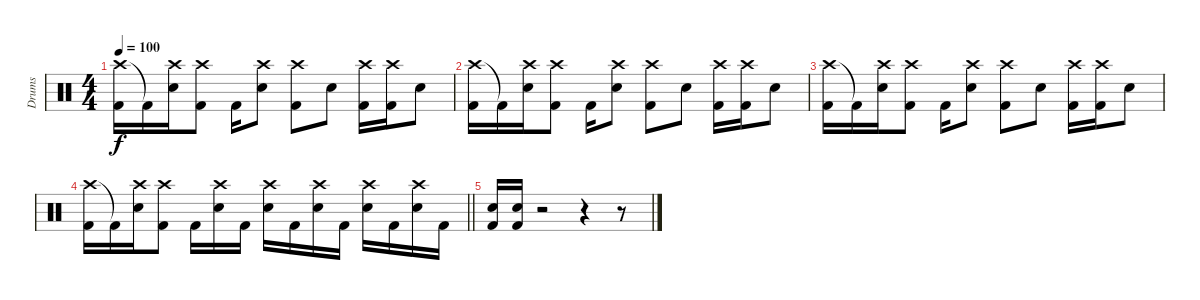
\track ("Drums" "Drums") {instrument percussion}
\staff {score}
\articulation defaults
\ts (4 4)
\tempo 100
\clef neutral
\ks c
("Crash high (hit)" "Kick (hit) 2").16{dy f} "Kick (hit) 2"{t}.16 ("Crash high (hit)" "Snare (hit) 2").16 ("Crash high (hit)" "Kick (hit) 2").8 "Kick (hit) 2".16 ("Crash high (hit)" "Snare (hit) 2").8 ("Crash high (hit)" "Kick (hit) 2").8 "Snare (hit) 2".8 ("Crash high (hit)" "Kick (hit) 2").16 ("Crash high (hit)" "Kick (hit) 2").16 "Snare (hit) 2".8 |
("Crash high (hit)" "Kick (hit) 2").16 "Kick (hit) 2"{t}.16 ("Crash high (hit)" "Snare (hit) 2").16 ("Crash high (hit)" "Kick (hit) 2").8 "Kick (hit) 2".16 ("Crash high (hit)" "Snare (hit) 2").8 ("Crash high (hit)" "Kick (hit) 2").8 "Snare (hit) 2".8 ("Crash high (hit)" "Kick (hit) 2").16 ("Crash high (hit)" "Kick (hit) 2").16 "Snare (hit) 2".8 |
("Crash high (hit)" "Kick (hit) 2").16 "Kick (hit) 2"{t}.16 ("Crash high (hit)" "Snare (hit) 2").16 ("Crash high (hit)" "Kick (hit) 2").8 "Kick (hit) 2".16 ("Crash high (hit)" "Snare (hit) 2").8 ("Crash high (hit)" "Kick (hit) 2").8 "Snare (hit) 2".8 ("Crash high (hit)" "Kick (hit) 2").16 ("Crash high (hit)" "Kick (hit) 2").16 "Snare (hit) 2".8 |
\barLineRight lightlight
("Crash high (hit)" "Kick (hit) 2").16 "Kick (hit) 2"{t}.16 ("Crash high (hit)" "Snare (hit) 2").16 ("Crash high (hit)" "Kick (hit) 2").8 "Kick (hit) 2".16 ("Crash high (hit)" "Snare (hit) 2").16 "Kick (hit) 2".16 ("Crash high (hit)" "Snare (hit) 2").16 "Kick (hit) 2".16 ("Crash high (hit)" "Snare (hit) 2").16 "Kick (hit) 2".16 ("Crash high (hit)" "Snare (hit) 2").16 "Kick (hit) 2".16 ("Crash high (hit)" "Snare (hit) 2").16 "Kick (hit) 2".16 |
("Snare (hit) 2" "Kick (hit) 2").16 ("Snare (hit) 2" "Kick (hit) 2").16 r.2 r.4 r.8
